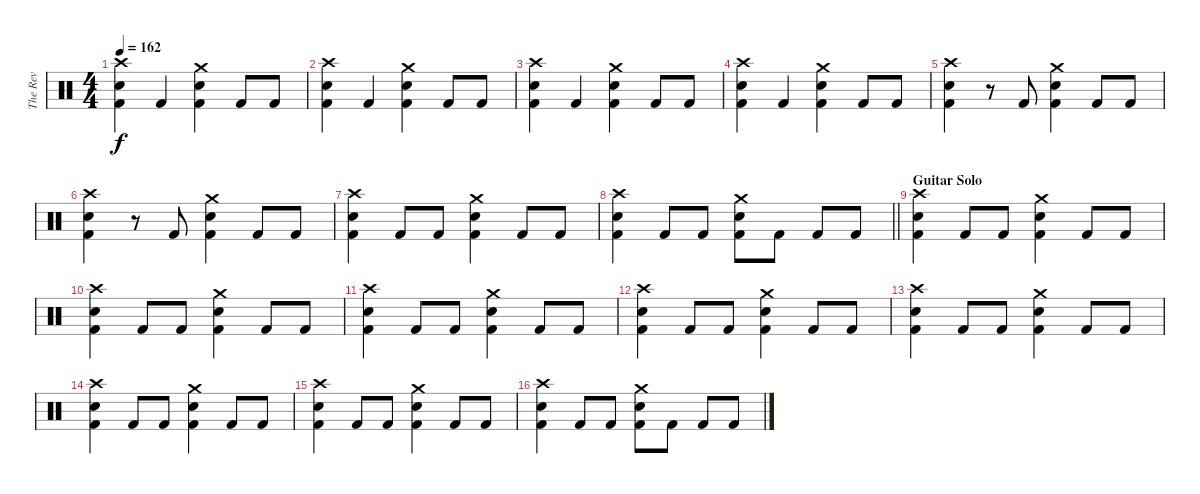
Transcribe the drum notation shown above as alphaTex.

\track ("The Rev" "The Rev") {instrument percussion}
\staff {score}
\articulation defaults
\ts (4 4)
\tempo 162
\clef neutral
\ks c
("Crash high (hit)" "Electric Snare (hit)" "Kick (hit) 2").4{dy f} "Kick (hit) 2".4 ("Crash medium (hit)" "Electric Snare (hit)" "Kick (hit) 2").4 "Kick (hit) 2".8 "Kick (hit) 2".8 |
("Crash high (hit)" "Electric Snare (hit)" "Kick (hit) 2").4 "Kick (hit) 2".4 ("Crash medium (hit)" "Electric Snare (hit)" "Kick (hit) 2").4 "Kick (hit) 2".8 "Kick (hit) 2".8 |
("Crash high (hit)" "Electric Snare (hit)" "Kick (hit) 2").4 "Kick (hit) 2".4 ("Crash medium (hit)" "Electric Snare (hit)" "Kick (hit) 2").4 "Kick (hit) 2".8 "Kick (hit) 2".8 |
("Crash high (hit)" "Electric Snare (hit)" "Kick (hit) 2").4 "Kick (hit) 2".4 ("Crash medium (hit)" "Electric Snare (hit)" "Kick (hit) 2").4 "Kick (hit) 2".8 "Kick (hit) 2".8 |
("Crash high (hit)" "Electric Snare (hit)" "Kick (hit) 2").4 r.8 "Kick (hit) 2".8 ("Crash medium (hit)" "Electric Snare (hit)" "Kick (hit) 2").4 "Kick (hit) 2".8 "Kick (hit) 2".8 |
("Crash high (hit)" "Electric Snare (hit)" "Kick (hit) 2").4 r.8 "Kick (hit) 2".8 ("Crash medium (hit)" "Electric Snare (hit)" "Kick (hit) 2").4 "Kick (hit) 2".8 "Kick (hit) 2".8 |
("Crash high (hit)" "Electric Snare (hit)" "Kick (hit) 2").4 "Kick (hit) 2".8 "Kick (hit) 2".8 ("Crash medium (hit)" "Electric Snare (hit)" "Kick (hit) 2").4 "Kick (hit) 2".8 "Kick (hit) 2".8 |
\barLineRight lightlight
("Crash high (hit)" "Electric Snare (hit)" "Kick (hit) 2").4 "Kick (hit) 2".8 "Kick (hit) 2".8 ("Crash medium (hit)" "Electric Snare (hit)" "Kick (hit) 2").8 "Kick (hit) 2".8 "Kick (hit) 2".8 "Kick (hit) 2".8 |
\section ("" "Guitar Solo")
("Crash high (hit)" "Electric Snare (hit)" "Kick (hit) 2").4 "Kick (hit) 2".8 "Kick (hit) 2".8 ("Crash medium (hit)" "Electric Snare (hit)" "Kick (hit) 2").4 "Kick (hit) 2".8 "Kick (hit) 2".8 |
("Crash high (hit)" "Electric Snare (hit)" "Kick (hit) 2").4 "Kick (hit) 2".8 "Kick (hit) 2".8 ("Crash medium (hit)" "Electric Snare (hit)" "Kick (hit) 2").4 "Kick (hit) 2".8 "Kick (hit) 2".8 |
("Crash high (hit)" "Electric Snare (hit)" "Kick (hit) 2").4 "Kick (hit) 2".8 "Kick (hit) 2".8 ("Crash medium (hit)" "Electric Snare (hit)" "Kick (hit) 2").4 "Kick (hit) 2".8 "Kick (hit) 2".8 |
("Crash high (hit)" "Electric Snare (hit)" "Kick (hit) 2").4 "Kick (hit) 2".8 "Kick (hit) 2".8 ("Crash medium (hit)" "Electric Snare (hit)" "Kick (hit) 2").4 "Kick (hit) 2".8 "Kick (hit) 2".8 |
("Crash high (hit)" "Electric Snare (hit)" "Kick (hit) 2").4 "Kick (hit) 2".8 "Kick (hit) 2".8 ("Crash medium (hit)" "Electric Snare (hit)" "Kick (hit) 2").4 "Kick (hit) 2".8 "Kick (hit) 2".8 |
("Crash high (hit)" "Electric Snare (hit)" "Kick (hit) 2").4 "Kick (hit) 2".8 "Kick (hit) 2".8 ("Crash medium (hit)" "Electric Snare (hit)" "Kick (hit) 2").4 "Kick (hit) 2".8 "Kick (hit) 2".8 |
("Crash high (hit)" "Electric Snare (hit)" "Kick (hit) 2").4 "Kick (hit) 2".8 "Kick (hit) 2".8 ("Crash medium (hit)" "Electric Snare (hit)" "Kick (hit) 2").4 "Kick (hit) 2".8 "Kick (hit) 2".8 |
("Crash high (hit)" "Electric Snare (hit)" "Kick (hit) 2").4 "Kick (hit) 2".8 "Kick (hit) 2".8 ("Crash medium (hit)" "Electric Snare (hit)" "Kick (hit) 2").8 "Kick (hit) 2".8 "Kick (hit) 2".8 "Kick (hit) 2".8
